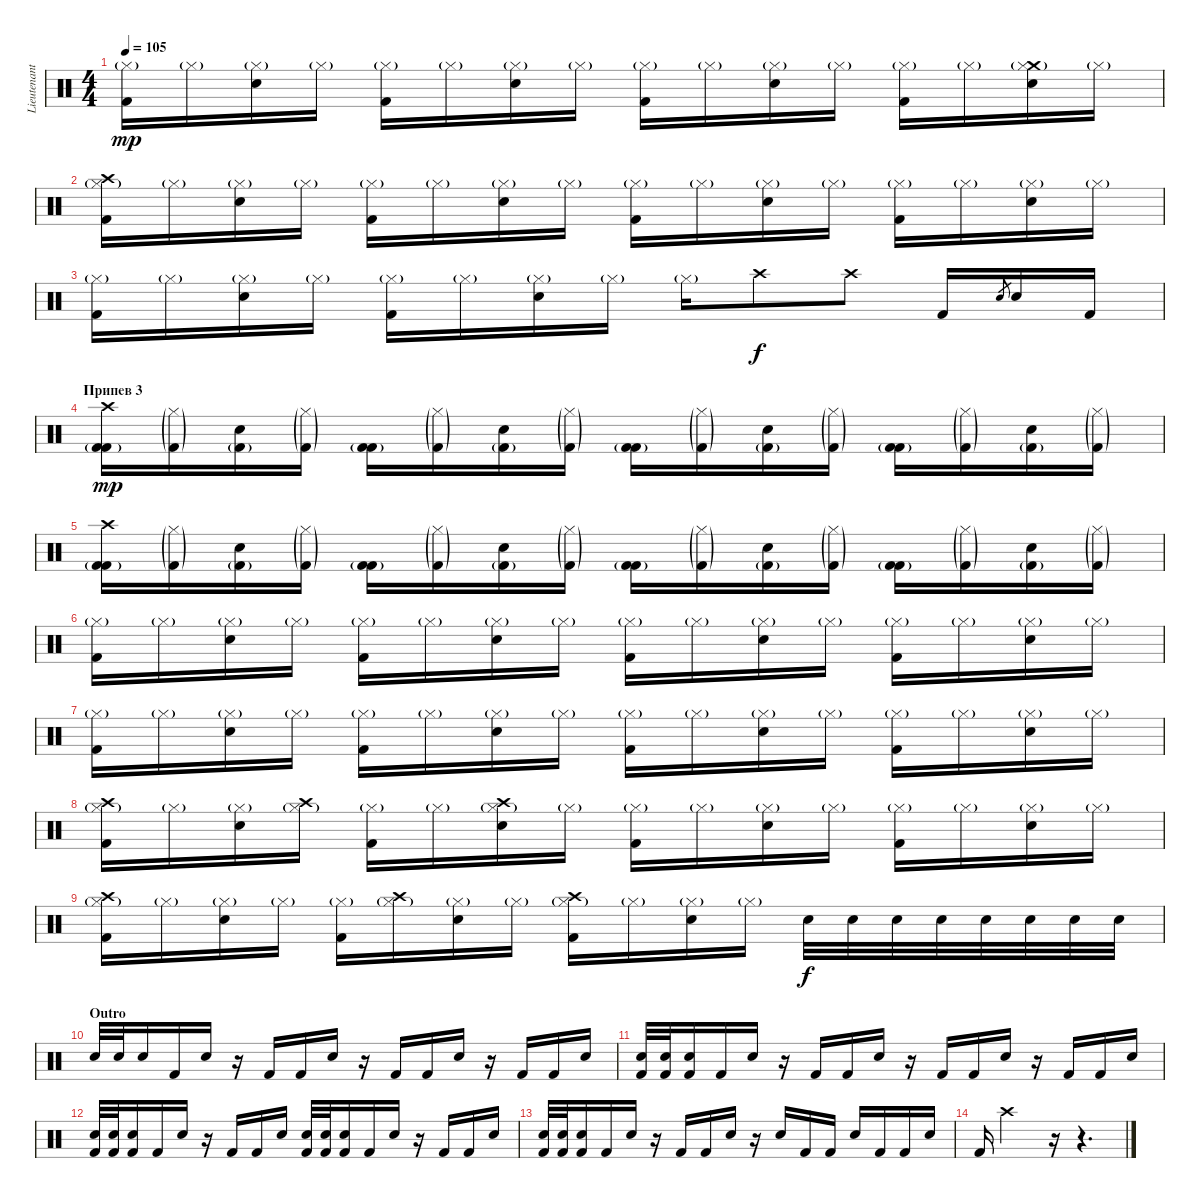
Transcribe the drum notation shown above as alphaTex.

\track ("Lieutenant [drums]" "Lieutenant") {instrument percussion}
\staff {score}
\articulation defaults
\ts (4 4)
\tempo 105
\clef neutral
\ks c
("Kick (hit) 2" "Hi-Hat (closed)"{g}).16{dy mp} "Hi-Hat (closed)"{g}.16 ("Snare (hit) 2" "Hi-Hat (closed)"{g}).16 "Hi-Hat (closed)"{g}.16 ("Kick (hit) 2" "Hi-Hat (closed)"{g}).16 "Hi-Hat (closed)"{g}.16 ("Snare (hit) 2" "Hi-Hat (closed)"{g}).16 "Hi-Hat (closed)"{g}.16 ("Kick (hit) 2" "Hi-Hat (closed)"{g}).16 "Hi-Hat (closed)"{g}.16 ("Snare (hit) 2" "Hi-Hat (closed)"{g}).16 "Hi-Hat (closed)"{g}.16 ("Kick (hit) 2" "Hi-Hat (closed)"{g}).16 "Hi-Hat (closed)"{g}.16 ("Snare (hit) 2" "Crash medium (hit)" "Hi-Hat (closed)"{g}).16 "Hi-Hat (closed)"{g}.16 |
("Kick (hit) 2" "Crash high (hit)" "Hi-Hat (closed)"{g}).16 "Hi-Hat (closed)"{g}.16 ("Snare (hit) 2" "Hi-Hat (closed)"{g}).16 "Hi-Hat (closed)"{g}.16 ("Kick (hit) 2" "Hi-Hat (closed)"{g}).16 "Hi-Hat (closed)"{g}.16 ("Snare (hit) 2" "Hi-Hat (closed)"{g}).16 "Hi-Hat (closed)"{g}.16 ("Kick (hit) 2" "Hi-Hat (closed)"{g}).16 "Hi-Hat (closed)"{g}.16 ("Snare (hit) 2" "Hi-Hat (closed)"{g}).16 "Hi-Hat (closed)"{g}.16 ("Kick (hit) 2" "Hi-Hat (closed)"{g}).16 "Hi-Hat (closed)"{g}.16 ("Snare (hit) 2" "Hi-Hat (closed)"{g}).16 "Hi-Hat (closed)"{g}.16 |
("Kick (hit) 2" "Hi-Hat (closed)"{g}).16 "Hi-Hat (closed)"{g}.16 ("Snare (hit) 2" "Hi-Hat (closed)"{g}).16 "Hi-Hat (closed)"{g}.16 ("Kick (hit) 2" "Hi-Hat (closed)"{g}).16 "Hi-Hat (closed)"{g}.16 ("Snare (hit) 2" "Hi-Hat (closed)"{g}).16 "Hi-Hat (closed)"{g}.16 "Hi-Hat (closed)"{g}.16 "Crash high (hit)".8{dy f} "Crash high (hit)".8 "Kick (hit) 2".16 "Snare (hit) 2".8{gr} "Snare (hit) 2".16 "Kick (hit) 2".16 |
\section ("" "Припев 3")
("Crash high (hit)" "Kick (hit) 2" "Kick (hit) 2"{g}).16{dy mp} ("Hi-Hat (closed)"{g} "Kick (hit) 2"{g}).16 ("Snare (hit) 2" "Kick (hit) 2"{g}).16 ("Hi-Hat (closed)"{g} "Kick (hit) 2"{g}).16 ("Kick (hit) 2" "Kick (hit) 2"{g}).16 ("Hi-Hat (closed)"{g} "Kick (hit) 2"{g}).16 ("Snare (hit) 2" "Kick (hit) 2"{g}).16 ("Hi-Hat (closed)"{g} "Kick (hit) 2"{g}).16 ("Kick (hit) 2" "Kick (hit) 2"{g}).16 ("Hi-Hat (closed)"{g} "Kick (hit) 2"{g}).16 ("Snare (hit) 2" "Kick (hit) 2"{g}).16 ("Hi-Hat (closed)"{g} "Kick (hit) 2"{g}).16 ("Kick (hit) 2" "Kick (hit) 2"{g}).16 ("Hi-Hat (closed)"{g} "Kick (hit) 2"{g}).16 ("Snare (hit) 2" "Kick (hit) 2"{g}).16 ("Hi-Hat (closed)"{g} "Kick (hit) 2"{g}).16 |
("Crash high (hit)" "Kick (hit) 2" "Kick (hit) 2"{g}).16 ("Hi-Hat (closed)"{g} "Kick (hit) 2"{g}).16 ("Snare (hit) 2" "Kick (hit) 2"{g}).16 ("Hi-Hat (closed)"{g} "Kick (hit) 2"{g}).16 ("Kick (hit) 2" "Kick (hit) 2"{g}).16 ("Hi-Hat (closed)"{g} "Kick (hit) 2"{g}).16 ("Snare (hit) 2" "Kick (hit) 2"{g}).16 ("Hi-Hat (closed)"{g} "Kick (hit) 2"{g}).16 ("Kick (hit) 2" "Kick (hit) 2"{g}).16 ("Hi-Hat (closed)"{g} "Kick (hit) 2"{g}).16 ("Snare (hit) 2" "Kick (hit) 2"{g}).16 ("Hi-Hat (closed)"{g} "Kick (hit) 2"{g}).16 ("Kick (hit) 2" "Kick (hit) 2"{g}).16 ("Hi-Hat (closed)"{g} "Kick (hit) 2"{g}).16 ("Snare (hit) 2" "Kick (hit) 2"{g}).16 ("Hi-Hat (closed)"{g} "Kick (hit) 2"{g}).16 |
("Kick (hit) 2" "Hi-Hat (closed)"{g}).16 "Hi-Hat (closed)"{g}.16 ("Snare (hit) 2" "Hi-Hat (closed)"{g}).16 "Hi-Hat (closed)"{g}.16 ("Kick (hit) 2" "Hi-Hat (closed)"{g}).16 "Hi-Hat (closed)"{g}.16 ("Snare (hit) 2" "Hi-Hat (closed)"{g}).16 "Hi-Hat (closed)"{g}.16 ("Kick (hit) 2" "Hi-Hat (closed)"{g}).16 "Hi-Hat (closed)"{g}.16 ("Snare (hit) 2" "Hi-Hat (closed)"{g}).16 "Hi-Hat (closed)"{g}.16 ("Kick (hit) 2" "Hi-Hat (closed)"{g}).16 "Hi-Hat (closed)"{g}.16 ("Snare (hit) 2" "Hi-Hat (closed)"{g}).16 "Hi-Hat (closed)"{g}.16 |
("Kick (hit) 2" "Hi-Hat (closed)"{g}).16 "Hi-Hat (closed)"{g}.16 ("Snare (hit) 2" "Hi-Hat (closed)"{g}).16 "Hi-Hat (closed)"{g}.16 ("Kick (hit) 2" "Hi-Hat (closed)"{g}).16 "Hi-Hat (closed)"{g}.16 ("Snare (hit) 2" "Hi-Hat (closed)"{g}).16 "Hi-Hat (closed)"{g}.16 ("Kick (hit) 2" "Hi-Hat (closed)"{g}).16 "Hi-Hat (closed)"{g}.16 ("Snare (hit) 2" "Hi-Hat (closed)"{g}).16 "Hi-Hat (closed)"{g}.16 ("Kick (hit) 2" "Hi-Hat (closed)"{g}).16 "Hi-Hat (closed)"{g}.16 ("Snare (hit) 2" "Hi-Hat (closed)"{g}).16 "Hi-Hat (closed)"{g}.16 |
("Kick (hit) 2" "Crash high (hit)" "Hi-Hat (closed)"{g}).16 "Hi-Hat (closed)"{g}.16 ("Snare (hit) 2" "Hi-Hat (closed)"{g}).16 ("Crash high (hit)" "Hi-Hat (closed)"{g}).16 ("Kick (hit) 2" "Hi-Hat (closed)"{g}).16 "Hi-Hat (closed)"{g}.16 ("Snare (hit) 2" "Crash high (hit)" "Hi-Hat (closed)"{g}).16 "Hi-Hat (closed)"{g}.16 ("Kick (hit) 2" "Hi-Hat (closed)"{g}).16 "Hi-Hat (closed)"{g}.16 ("Snare (hit) 2" "Hi-Hat (closed)"{g}).16 "Hi-Hat (closed)"{g}.16 ("Kick (hit) 2" "Hi-Hat (closed)"{g}).16 "Hi-Hat (closed)"{g}.16 ("Snare (hit) 2" "Hi-Hat (closed)"{g}).16 "Hi-Hat (closed)"{g}.16 |
("Kick (hit) 2" "Crash high (hit)" "Hi-Hat (closed)"{g}).16 "Hi-Hat (closed)"{g}.16 ("Snare (hit) 2" "Hi-Hat (closed)"{g}).16 "Hi-Hat (closed)"{g}.16 ("Kick (hit) 2" "Hi-Hat (closed)"{g}).16 ("Crash high (hit)" "Hi-Hat (closed)"{g}).16 ("Snare (hit) 2" "Hi-Hat (closed)"{g}).16 "Hi-Hat (closed)"{g}.16 ("Kick (hit) 2" "Crash high (hit)" "Hi-Hat (closed)"{g}).16 "Hi-Hat (closed)"{g}.16 ("Snare (hit) 2" "Hi-Hat (closed)"{g}).16 "Hi-Hat (closed)"{g}.16 "Snare (hit) 2".32{dy f} "Snare (hit) 2".32 "Snare (hit) 2".32 "Snare (hit) 2".32 "Snare (hit) 2".32 "Snare (hit) 2".32 "Snare (hit) 2".32 "Snare (hit) 2".32 |
\section ("" "Outro")
"Snare (hit) 2".32 "Snare (hit) 2".32 "Snare (hit) 2".16 "Kick (hit) 2".16 "Snare (hit) 2".16 r.16 "Kick (hit) 2".16 "Kick (hit) 2".16 "Snare (hit) 2".16 r.16 "Kick (hit) 2".16 "Kick (hit) 2".16 "Snare (hit) 2".16 r.16 "Kick (hit) 2".16 "Kick (hit) 2".16 "Snare (hit) 2".16 |
("Snare (hit) 2" "Kick (hit) 2").32 ("Snare (hit) 2" "Kick (hit) 2").32 ("Snare (hit) 2" "Kick (hit) 2").16 "Kick (hit) 2".16 "Snare (hit) 2".16 r.16 "Kick (hit) 2".16 "Kick (hit) 2".16 "Snare (hit) 2".16 r.16 "Kick (hit) 2".16 "Kick (hit) 2".16 "Snare (hit) 2".16 r.16 "Kick (hit) 2".16 "Kick (hit) 2".16 "Snare (hit) 2".16 |
("Snare (hit) 2" "Kick (hit) 2").32 ("Snare (hit) 2" "Kick (hit) 2").32 ("Snare (hit) 2" "Kick (hit) 2").16 "Kick (hit) 2".16 "Snare (hit) 2".16 r.16 "Kick (hit) 2".16 "Kick (hit) 2".16 "Snare (hit) 2".16 ("Snare (hit) 2" "Kick (hit) 2").32 ("Snare (hit) 2" "Kick (hit) 2").32 ("Snare (hit) 2" "Kick (hit) 2").16 "Kick (hit) 2".16 "Snare (hit) 2".16 r.16 "Kick (hit) 2".16 "Kick (hit) 2".16 "Snare (hit) 2".16 |
("Snare (hit) 2" "Kick (hit) 2").32 ("Snare (hit) 2" "Kick (hit) 2").32 ("Snare (hit) 2" "Kick (hit) 2").16 "Kick (hit) 2".16 "Snare (hit) 2".16 r.16 "Kick (hit) 2".16 "Kick (hit) 2".16 "Snare (hit) 2".16 r.16 "Snare (hit) 2".16 "Kick (hit) 2".16 "Kick (hit) 2".16 "Snare (hit) 2".16 "Kick (hit) 2".16 "Kick (hit) 2".16 "Snare (hit) 2".16 |
"Kick (hit) 2".16 "Crash high (hit)".2 r.16 r.4{d}
